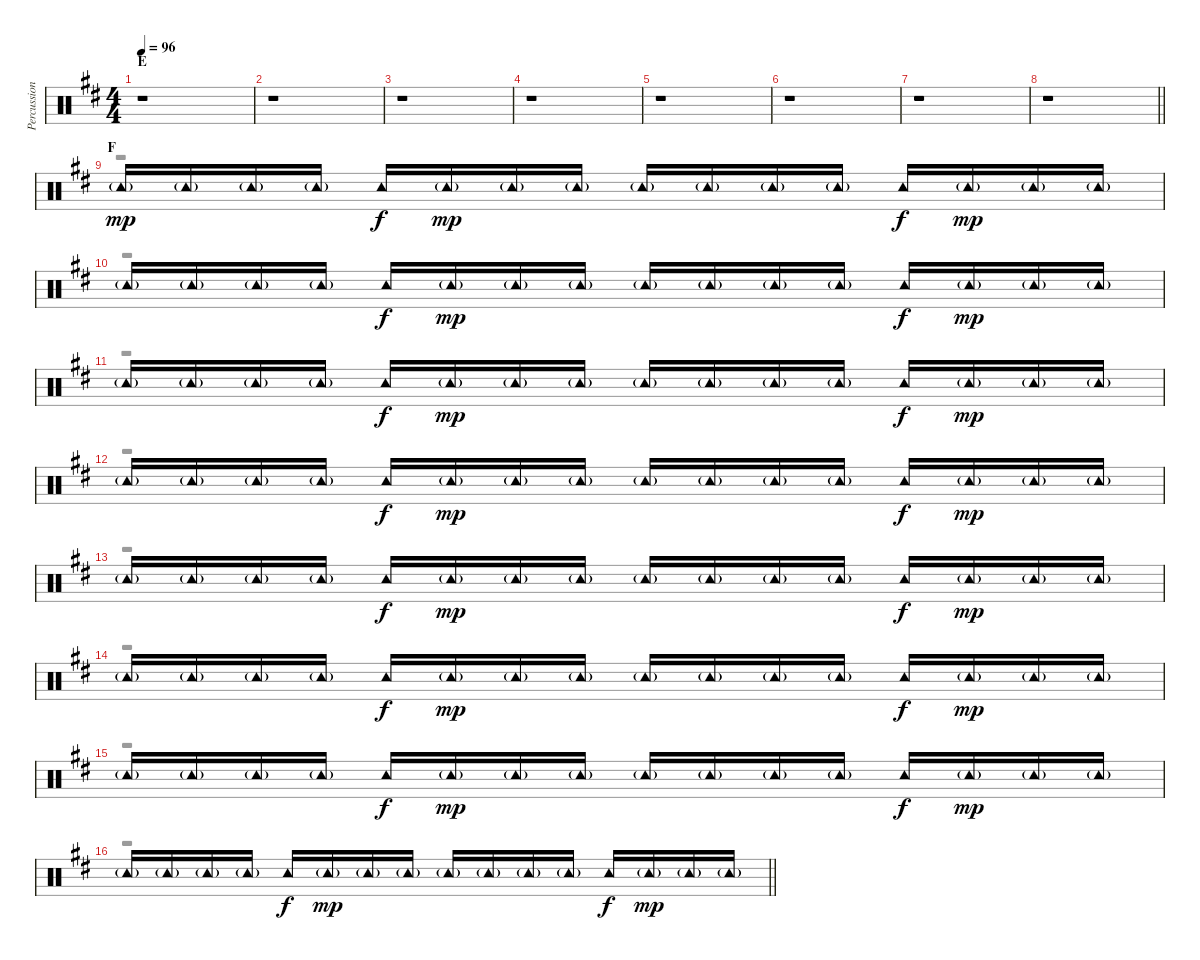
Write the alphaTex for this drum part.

\track ("Percussion" "Percussion") {instrument percussion}
\staff {score}
\articulation defaults
\voice
\ts (4 4)
\section ("" "E")
\tempo 96
\clef neutral
\ks d
r.1{dy mp} |
r.1 |
r.1 |
r.1 |
r.1 |
r.1 |
r.1 |
\barLineRight lightlight
r.1 |
\section ("" "F")
"Tambourine (hit)"{g}.16 "Tambourine (hit)"{g}.16 "Tambourine (hit)"{g}.16 "Tambourine (hit)"{g}.16 "Tambourine (hit)".16{dy f} "Tambourine (hit)"{g}.16{dy mp} "Tambourine (hit)"{g}.16 "Tambourine (hit)"{g}.16 "Tambourine (hit)"{g}.16 "Tambourine (hit)"{g}.16 "Tambourine (hit)"{g}.16 "Tambourine (hit)"{g}.16 "Tambourine (hit)".16{dy f} "Tambourine (hit)"{g}.16{dy mp} "Tambourine (hit)"{g}.16 "Tambourine (hit)"{g}.16 |
"Tambourine (hit)"{g}.16 "Tambourine (hit)"{g}.16 "Tambourine (hit)"{g}.16 "Tambourine (hit)"{g}.16 "Tambourine (hit)".16{dy f} "Tambourine (hit)"{g}.16{dy mp} "Tambourine (hit)"{g}.16 "Tambourine (hit)"{g}.16 "Tambourine (hit)"{g}.16 "Tambourine (hit)"{g}.16 "Tambourine (hit)"{g}.16 "Tambourine (hit)"{g}.16 "Tambourine (hit)".16{dy f} "Tambourine (hit)"{g}.16{dy mp} "Tambourine (hit)"{g}.16 "Tambourine (hit)"{g}.16 |
"Tambourine (hit)"{g}.16 "Tambourine (hit)"{g}.16 "Tambourine (hit)"{g}.16 "Tambourine (hit)"{g}.16 "Tambourine (hit)".16{dy f} "Tambourine (hit)"{g}.16{dy mp} "Tambourine (hit)"{g}.16 "Tambourine (hit)"{g}.16 "Tambourine (hit)"{g}.16 "Tambourine (hit)"{g}.16 "Tambourine (hit)"{g}.16 "Tambourine (hit)"{g}.16 "Tambourine (hit)".16{dy f} "Tambourine (hit)"{g}.16{dy mp} "Tambourine (hit)"{g}.16 "Tambourine (hit)"{g}.16 |
"Tambourine (hit)"{g}.16 "Tambourine (hit)"{g}.16 "Tambourine (hit)"{g}.16 "Tambourine (hit)"{g}.16 "Tambourine (hit)".16{dy f} "Tambourine (hit)"{g}.16{dy mp} "Tambourine (hit)"{g}.16 "Tambourine (hit)"{g}.16 "Tambourine (hit)"{g}.16 "Tambourine (hit)"{g}.16 "Tambourine (hit)"{g}.16 "Tambourine (hit)"{g}.16 "Tambourine (hit)".16{dy f} "Tambourine (hit)"{g}.16{dy mp} "Tambourine (hit)"{g}.16 "Tambourine (hit)"{g}.16 |
"Tambourine (hit)"{g}.16 "Tambourine (hit)"{g}.16 "Tambourine (hit)"{g}.16 "Tambourine (hit)"{g}.16 "Tambourine (hit)".16{dy f} "Tambourine (hit)"{g}.16{dy mp} "Tambourine (hit)"{g}.16 "Tambourine (hit)"{g}.16 "Tambourine (hit)"{g}.16 "Tambourine (hit)"{g}.16 "Tambourine (hit)"{g}.16 "Tambourine (hit)"{g}.16 "Tambourine (hit)".16{dy f} "Tambourine (hit)"{g}.16{dy mp} "Tambourine (hit)"{g}.16 "Tambourine (hit)"{g}.16 |
"Tambourine (hit)"{g}.16 "Tambourine (hit)"{g}.16 "Tambourine (hit)"{g}.16 "Tambourine (hit)"{g}.16 "Tambourine (hit)".16{dy f} "Tambourine (hit)"{g}.16{dy mp} "Tambourine (hit)"{g}.16 "Tambourine (hit)"{g}.16 "Tambourine (hit)"{g}.16 "Tambourine (hit)"{g}.16 "Tambourine (hit)"{g}.16 "Tambourine (hit)"{g}.16 "Tambourine (hit)".16{dy f} "Tambourine (hit)"{g}.16{dy mp} "Tambourine (hit)"{g}.16 "Tambourine (hit)"{g}.16 |
"Tambourine (hit)"{g}.16 "Tambourine (hit)"{g}.16 "Tambourine (hit)"{g}.16 "Tambourine (hit)"{g}.16 "Tambourine (hit)".16{dy f} "Tambourine (hit)"{g}.16{dy mp} "Tambourine (hit)"{g}.16 "Tambourine (hit)"{g}.16 "Tambourine (hit)"{g}.16 "Tambourine (hit)"{g}.16 "Tambourine (hit)"{g}.16 "Tambourine (hit)"{g}.16 "Tambourine (hit)".16{dy f} "Tambourine (hit)"{g}.16{dy mp} "Tambourine (hit)"{g}.16 "Tambourine (hit)"{g}.16 |
\barLineRight lightlight "Tambourine (hit)"{g}.16 "Tambourine (hit)"{g}.16 "Tambourine (hit)"{g}.16 "Tambourine (hit)"{g}.16 "Tambourine (hit)".16{dy f} "Tambourine (hit)"{g}.16{dy mp} "Tambourine (hit)"{g}.16 "Tambourine (hit)"{g}.16 "Tambourine (hit)"{g}.16 "Tambourine (hit)"{g}.16 "Tambourine (hit)"{g}.16 "Tambourine (hit)"{g}.16 "Tambourine (hit)".16{dy f} "Tambourine (hit)"{g}.16{dy mp} "Tambourine (hit)"{g}.16 "Tambourine (hit)"{g}.16
\voice
\clef neutral
\ottava regular
\simile none
\ks d
r.1{dy fff} |
r.1 |
r.1 |
r.1 |
r.1 |
r.1 |
r.1 |
\barLineRight lightlight
r.1 |
r.1 |
r.1 |
r.1 |
r.1 |
r.1 |
r.1 |
r.1 |
\barLineRight lightlight
r.1
